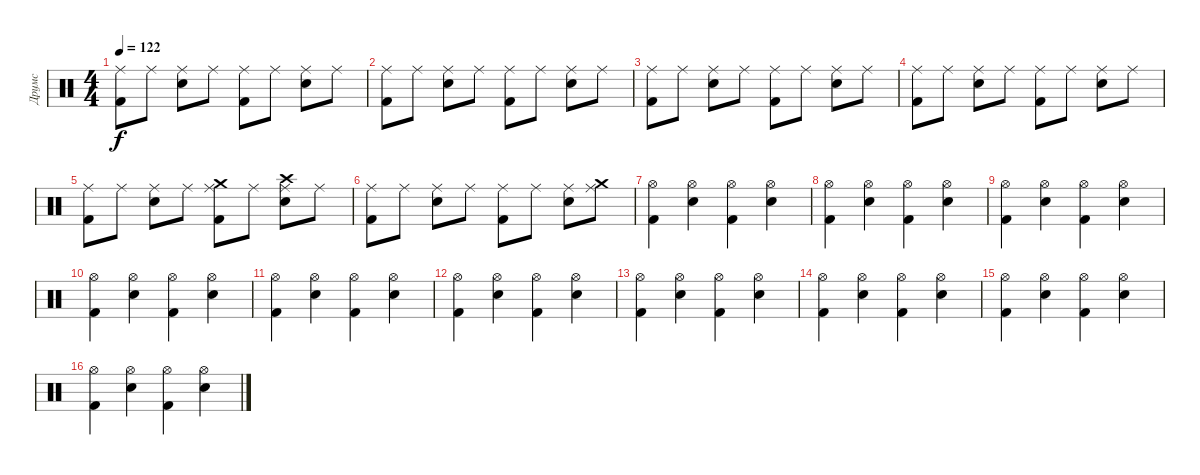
\track ("Друмс" "Друмс") {instrument percussion}
\staff {score}
\articulation defaults
\ts (4 4)
\tempo 122
\clef neutral
\ks c
("Ride (middle)" "Kick (hit) 2").8{dy f} "Ride (middle)".8 ("Ride (middle)" "Snare (hit) 2").8 "Ride (middle)".8 ("Ride (middle)" "Kick (hit) 2").8 "Ride (middle)".8 ("Ride (middle)" "Snare (hit) 2").8 "Ride (middle)".8 |
("Ride (middle)" "Kick (hit) 2").8 "Ride (middle)".8 ("Ride (middle)" "Snare (hit) 2").8 "Ride (middle)".8 ("Ride (middle)" "Kick (hit) 2").8 "Ride (middle)".8 ("Ride (middle)" "Snare (hit) 2").8 "Ride (middle)".8 |
("Ride (middle)" "Kick (hit) 2").8 "Ride (middle)".8 ("Ride (middle)" "Snare (hit) 2").8 "Ride (middle)".8 ("Ride (middle)" "Kick (hit) 2").8 "Ride (middle)".8 ("Ride (middle)" "Snare (hit) 2").8 "Ride (middle)".8 |
("Ride (middle)" "Kick (hit) 2").8 "Ride (middle)".8 ("Ride (middle)" "Snare (hit) 2").8 "Ride (middle)".8 ("Ride (middle)" "Kick (hit) 2").8 "Ride (middle)".8 ("Ride (middle)" "Snare (hit) 2").8 "Ride (middle)".8 |
("Ride (middle)" "Kick (hit) 2").8 "Ride (middle)".8 ("Ride (middle)" "Snare (hit) 2").8 "Ride (middle)".8 ("Ride (middle)" "Kick (hit) 2" "Crash medium (hit)").8 "Ride (middle)".8 ("Ride (middle)" "Snare (hit) 2" "Crash high (hit)").8 "Ride (middle)".8 |
("Ride (middle)" "Kick (hit) 2").8 "Ride (middle)".8 ("Ride (middle)" "Snare (hit) 2").8 "Ride (middle)".8 ("Ride (middle)" "Kick (hit) 2").8 "Ride (middle)".8 ("Ride (middle)" "Snare (hit) 2").8 ("Ride (middle)" "Crash medium (hit)").8 |
("Hi-Hat (open)" "Kick (hit) 2").4 ("Hi-Hat (open)" "Snare (hit) 2").4 ("Hi-Hat (open)" "Kick (hit) 2").4 ("Hi-Hat (open)" "Snare (hit) 2").4 |
("Hi-Hat (open)" "Kick (hit) 2").4 ("Hi-Hat (open)" "Snare (hit) 2").4 ("Hi-Hat (open)" "Kick (hit) 2").4 ("Hi-Hat (open)" "Snare (hit) 2").4 |
("Hi-Hat (open)" "Kick (hit) 2").4 ("Hi-Hat (open)" "Snare (hit) 2").4 ("Hi-Hat (open)" "Kick (hit) 2").4 ("Hi-Hat (open)" "Snare (hit) 2").4 |
("Hi-Hat (open)" "Kick (hit) 2").4 ("Hi-Hat (open)" "Snare (hit) 2").4 ("Hi-Hat (open)" "Kick (hit) 2").4 ("Hi-Hat (open)" "Snare (hit) 2").4 |
("Hi-Hat (open)" "Kick (hit) 2").4 ("Hi-Hat (open)" "Snare (hit) 2").4 ("Hi-Hat (open)" "Kick (hit) 2").4 ("Hi-Hat (open)" "Snare (hit) 2").4 |
("Hi-Hat (open)" "Kick (hit) 2").4 ("Hi-Hat (open)" "Snare (hit) 2").4 ("Hi-Hat (open)" "Kick (hit) 2").4 ("Hi-Hat (open)" "Snare (hit) 2").4 |
("Hi-Hat (open)" "Kick (hit) 2").4 ("Hi-Hat (open)" "Snare (hit) 2").4 ("Hi-Hat (open)" "Kick (hit) 2").4 ("Hi-Hat (open)" "Snare (hit) 2").4 |
("Hi-Hat (open)" "Kick (hit) 2").4 ("Hi-Hat (open)" "Snare (hit) 2").4 ("Hi-Hat (open)" "Kick (hit) 2").4 ("Hi-Hat (open)" "Snare (hit) 2").4 |
("Hi-Hat (open)" "Kick (hit) 2").4 ("Hi-Hat (open)" "Snare (hit) 2").4 ("Hi-Hat (open)" "Kick (hit) 2").4 ("Hi-Hat (open)" "Snare (hit) 2").4 |
("Hi-Hat (open)" "Kick (hit) 2").4 ("Hi-Hat (open)" "Snare (hit) 2").4 ("Hi-Hat (open)" "Kick (hit) 2").4 ("Hi-Hat (open)" "Snare (hit) 2").4
